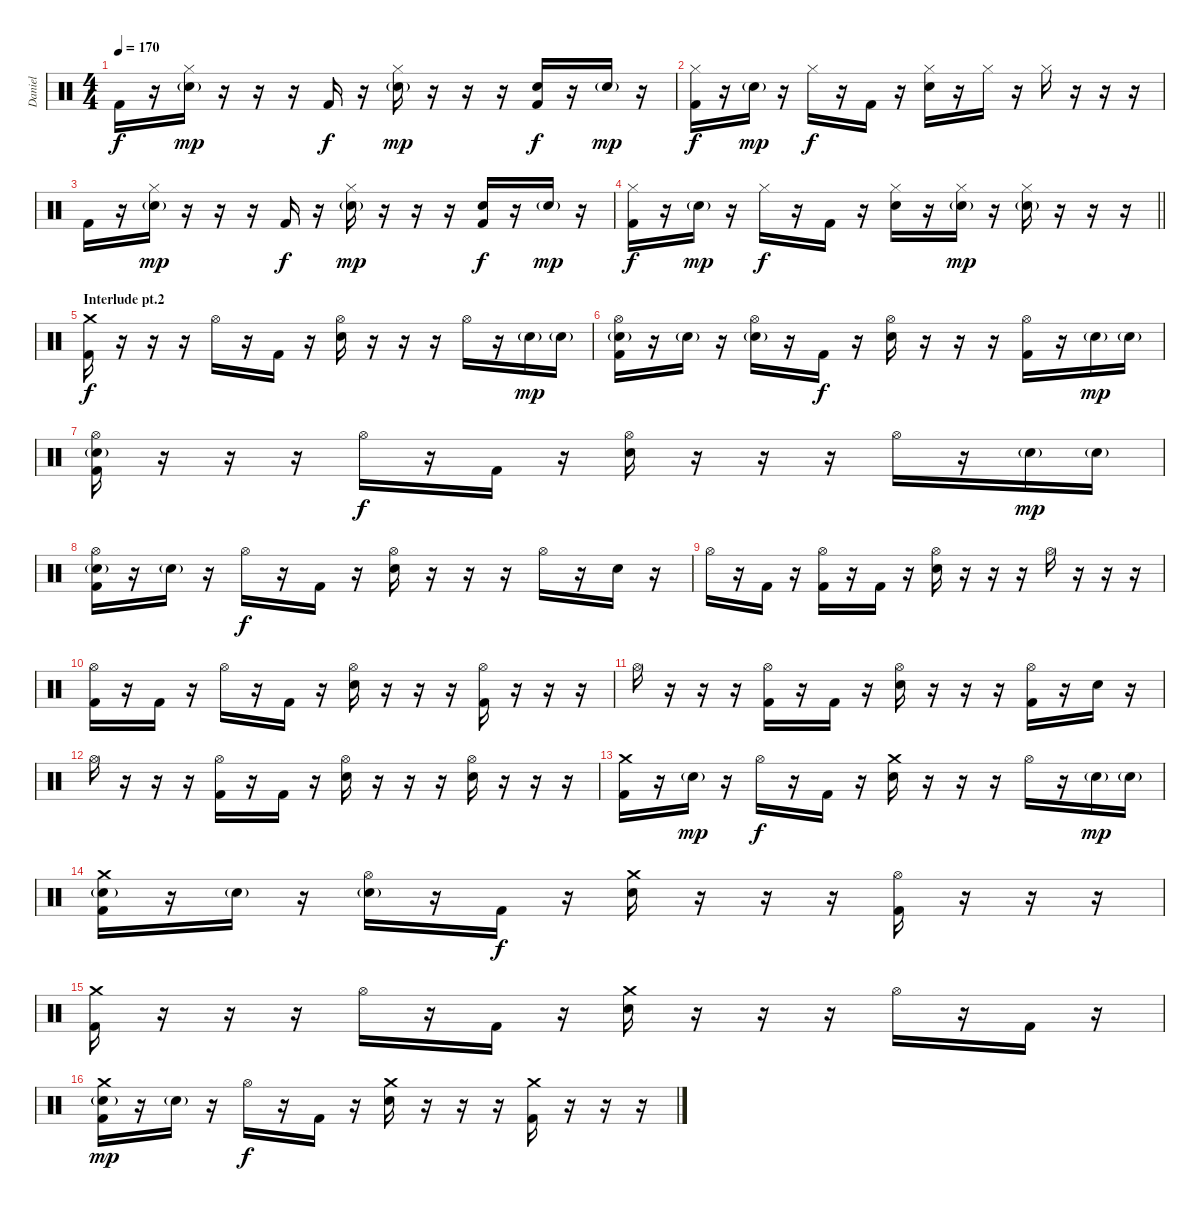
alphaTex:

\track ("Daniel" "Daniel") {instrument percussion}
\staff {score}
\articulation defaults
\ts (4 4)
\tempo 170
\clef neutral
\ks c "Kick (hit) 2".16{dy f}
r.16 ("Hi-Hat (closed)" "Snare (hit) 2"{g}).16{dy mp} r.16 r.16 r.16 "Kick (hit) 2".16{dy f} r.16 ("Hi-Hat (closed)" "Snare (hit) 2"{g}).16{dy mp} r.16 r.16 r.16 ("Snare (hit) 2" "Kick (hit) 2").16{dy f} r.16 "Snare (hit) 2"{g}.16{dy mp} r.16 |
("Hi-Hat (closed)" "Kick (hit) 2").16{dy f} r.16 "Snare (hit) 2"{g}.16{dy mp} r.16 "Hi-Hat (closed)".16{dy f} r.16 "Kick (hit) 2".16 r.16 ("Hi-Hat (closed)" "Snare (hit) 2").16 r.16 "Hi-Hat (closed)".16 r.16 "Hi-Hat (closed)".16 r.16 r.16 r.16 |
"Kick (hit) 2".16 r.16 ("Hi-Hat (closed)" "Snare (hit) 2"{g}).16{dy mp} r.16 r.16 r.16 "Kick (hit) 2".16{dy f} r.16 ("Hi-Hat (closed)" "Snare (hit) 2"{g}).16{dy mp} r.16 r.16 r.16 ("Snare (hit) 2" "Kick (hit) 2").16{dy f} r.16 "Snare (hit) 2"{g}.16{dy mp} r.16 |
\barLineRight lightlight
("Hi-Hat (closed)" "Kick (hit) 2").16{dy f} r.16 "Snare (hit) 2"{g}.16{dy mp} r.16 "Hi-Hat (closed)".16{dy f} r.16 "Kick (hit) 2".16 r.16 ("Hi-Hat (closed)" "Snare (hit) 2").16 r.16 ("Hi-Hat (closed)" "Snare (hit) 2"{g}).16{dy mp} r.16 ("Hi-Hat (closed)" "Snare (hit) 2"{g}).16 r.16 r.16 r.16 |
\section ("" "Interlude pt.2")
("Crash medium (hit)" "Kick (hit) 2").16{dy f} r.16 r.16 r.16 "Hi-Hat (open)".16 r.16 "Kick (hit) 2".16 r.16 ("Hi-Hat (open)" "Snare (hit) 2").16 r.16 r.16 r.16 "Hi-Hat (open)".16 r.16 "Snare (hit) 2"{g}.16{dy mp} "Snare (hit) 2"{g}.16 |
("Hi-Hat (open)" "Snare (hit) 2"{g} "Kick (hit) 2").16 r.16 "Snare (hit) 2"{g}.16 r.16 ("Hi-Hat (open)" "Snare (hit) 2"{g}).16 r.16 "Kick (hit) 2".16{dy f} r.16 ("Hi-Hat (open)" "Snare (hit) 2").16 r.16 r.16 r.16 ("Hi-Hat (open)" "Kick (hit) 2").16 r.16 "Snare (hit) 2"{g}.16{dy mp} "Snare (hit) 2"{g}.16 |
("Hi-Hat (open)" "Snare (hit) 2"{g} "Kick (hit) 2").16 r.16 r.16 r.16 "Hi-Hat (open)".16{dy f} r.16 "Kick (hit) 2".16 r.16 ("Hi-Hat (open)" "Snare (hit) 2").16 r.16 r.16 r.16 "Hi-Hat (open)".16 r.16 "Snare (hit) 2"{g}.16{dy mp} "Snare (hit) 2"{g}.16 |
("Hi-Hat (open)" "Snare (hit) 2"{g} "Kick (hit) 2").16 r.16 "Snare (hit) 2"{g}.16 r.16 "Hi-Hat (open)".16{dy f} r.16 "Kick (hit) 2".16 r.16 ("Hi-Hat (open)" "Snare (hit) 2").16 r.16 r.16 r.16 "Hi-Hat (open)".16 r.16 "Snare (hit) 2".16 r.16 |
"Hi-Hat (open)".16 r.16 "Kick (hit) 2".16 r.16 ("Hi-Hat (open)" "Kick (hit) 2").16 r.16 "Kick (hit) 2".16 r.16 ("Hi-Hat (open)" "Snare (hit) 2").16 r.16 r.16 r.16 "Hi-Hat (open)".16 r.16 r.16 r.16 |
("Hi-Hat (open)" "Kick (hit) 2").16 r.16 "Kick (hit) 2".16 r.16 "Hi-Hat (open)".16 r.16 "Kick (hit) 2".16 r.16 ("Hi-Hat (open)" "Snare (hit) 2").16 r.16 r.16 r.16 ("Hi-Hat (open)" "Kick (hit) 2").16 r.16 r.16 r.16 |
"Hi-Hat (open)".16 r.16 r.16 r.16 ("Hi-Hat (open)" "Kick (hit) 2").16 r.16 "Kick (hit) 2".16 r.16 ("Hi-Hat (open)" "Snare (hit) 2").16 r.16 r.16 r.16 ("Hi-Hat (open)" "Kick (hit) 2").16 r.16 "Snare (hit) 2".16 r.16 |
"Hi-Hat (open)".16 r.16 r.16 r.16 ("Hi-Hat (open)" "Kick (hit) 2").16 r.16 "Kick (hit) 2".16 r.16 ("Hi-Hat (open)" "Snare (hit) 2").16 r.16 r.16 r.16 ("Hi-Hat (open)" "Snare (hit) 2").16 r.16 r.16 r.16 |
("Crash medium (hit)" "Kick (hit) 2").16 r.16 "Snare (hit) 2"{g}.16{dy mp} r.16 "Hi-Hat (open)".16{dy f} r.16 "Kick (hit) 2".16 r.16 ("Crash medium (hit)" "Snare (hit) 2").16 r.16 r.16 r.16 "Hi-Hat (open)".16 r.16 "Snare (hit) 2"{g}.16{dy mp} "Snare (hit) 2"{g}.16 |
("Crash medium (hit)" "Snare (hit) 2"{g} "Kick (hit) 2").16 r.16 "Snare (hit) 2"{g}.16 r.16 ("Hi-Hat (open)" "Snare (hit) 2"{g}).16 r.16 "Kick (hit) 2".16{dy f} r.16 ("Crash medium (hit)" "Snare (hit) 2").16 r.16 r.16 r.16 ("Hi-Hat (open)" "Kick (hit) 2").16 r.16 r.16 r.16 |
("Crash medium (hit)" "Kick (hit) 2").16 r.16 r.16 r.16 "Hi-Hat (open)".16 r.16 "Kick (hit) 2".16 r.16 ("Crash medium (hit)" "Snare (hit) 2").16 r.16 r.16 r.16 "Hi-Hat (open)".16 r.16 "Kick (hit) 2".16 r.16 |
("Crash medium (hit)" "Snare (hit) 2"{g} "Kick (hit) 2").16{dy mp} r.16 "Snare (hit) 2"{g}.16 r.16 "Hi-Hat (open)".16{dy f} r.16 "Kick (hit) 2".16 r.16 ("Crash medium (hit)" "Snare (hit) 2").16 r.16 r.16 r.16 ("Crash medium (hit)" "Kick (hit) 2").16 r.16 r.16 r.16
